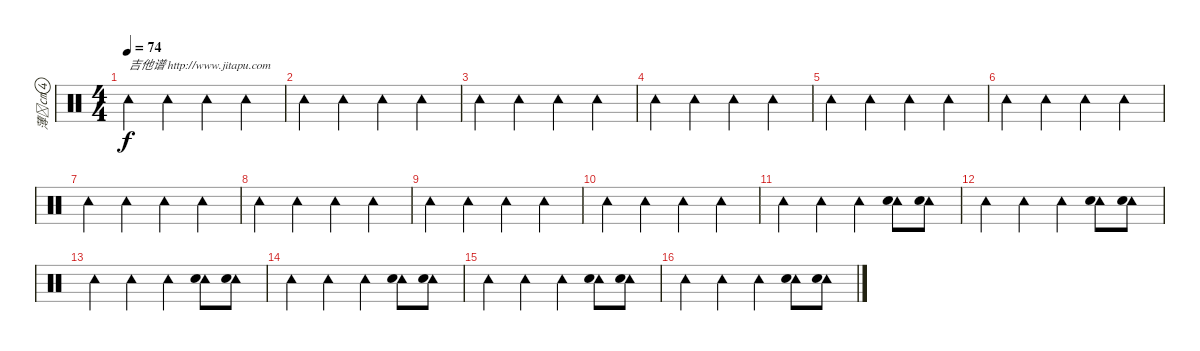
\track ("薄㎝" "薄㎝") {instrument percussion}
\staff {score}
\articulation defaults
\ts (4 4)
\tempo 74
\clef neutral
\ks c "Tambourine (hit)".4{txt "吉他谱 http://www.jitapu.com" dy f} "Tambourine (hit)".4 "Tambourine (hit)".4 "Tambourine (hit)".4
|
"Tambourine (hit)".4 "Tambourine (hit)".4 "Tambourine (hit)".4 "Tambourine (hit)".4 |
"Tambourine (hit)".4 "Tambourine (hit)".4 "Tambourine (hit)".4 "Tambourine (hit)".4 |
"Tambourine (hit)".4 "Tambourine (hit)".4 "Tambourine (hit)".4 "Tambourine (hit)".4 |
"Tambourine (hit)".4 "Tambourine (hit)".4 "Tambourine (hit)".4 "Tambourine (hit)".4 |
"Tambourine (hit)".4 "Tambourine (hit)".4 "Tambourine (hit)".4 "Tambourine (hit)".4 |
"Tambourine (hit)".4 "Tambourine (hit)".4 "Tambourine (hit)".4 "Tambourine (hit)".4 |
"Tambourine (hit)".4 "Tambourine (hit)".4 "Tambourine (hit)".4 "Tambourine (hit)".4 |
"Tambourine (hit)".4 "Tambourine (hit)".4 "Tambourine (hit)".4 "Tambourine (hit)".4 |
"Tambourine (hit)".4 "Tambourine (hit)".4 "Tambourine (hit)".4 "Tambourine (hit)".4 |
"Tambourine (hit)".4 "Tambourine (hit)".4 "Tambourine (hit)".4 ("Tambourine (hit)" "Snare (hit) 2").8 ("Tambourine (hit)" "Snare (hit) 2").8 |
"Tambourine (hit)".4 "Tambourine (hit)".4 "Tambourine (hit)".4 ("Tambourine (hit)" "Snare (hit) 2").8 ("Tambourine (hit)" "Snare (hit) 2").8 |
"Tambourine (hit)".4 "Tambourine (hit)".4 "Tambourine (hit)".4 ("Tambourine (hit)" "Snare (hit) 2").8 ("Tambourine (hit)" "Snare (hit) 2").8 |
"Tambourine (hit)".4 "Tambourine (hit)".4 "Tambourine (hit)".4 ("Tambourine (hit)" "Snare (hit) 2").8 ("Tambourine (hit)" "Snare (hit) 2").8 |
"Tambourine (hit)".4 "Tambourine (hit)".4 "Tambourine (hit)".4 ("Tambourine (hit)" "Snare (hit) 2").8 ("Tambourine (hit)" "Snare (hit) 2").8 |
"Tambourine (hit)".4 "Tambourine (hit)".4 "Tambourine (hit)".4 ("Tambourine (hit)" "Snare (hit) 2").8 ("Tambourine (hit)" "Snare (hit) 2").8
